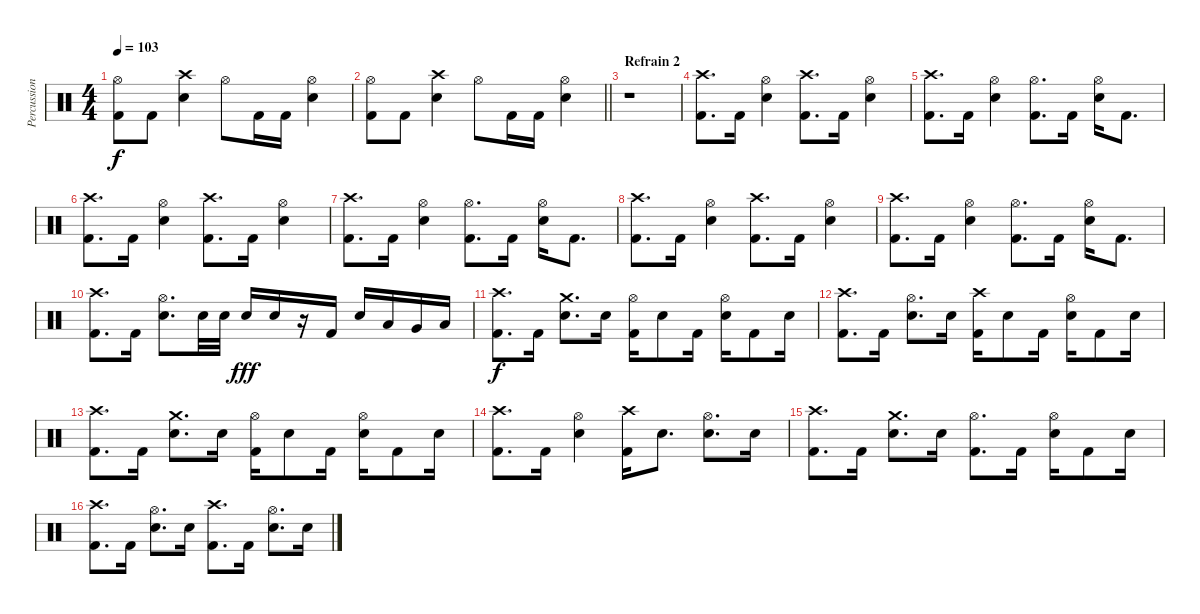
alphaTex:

\track ("Percussions" "Percussion") {instrument percussion}
\staff {score}
\articulation defaults
\ts (4 4)
\tempo 103
\clef neutral
\ks c
("Hi-Hat (open)" "Kick (hit) 2").8{dy f} "Kick (hit) 2".8 ("Crash high (hit)" "Electric Snare (hit)").4 "Hi-Hat (open)".8 "Kick (hit) 2".16 "Kick (hit) 2".16 ("Hi-Hat (open)" "Electric Snare (hit)").4 |
\barLineRight lightlight
("Hi-Hat (open)" "Kick (hit) 2").8 "Kick (hit) 2".8 ("Crash high (hit)" "Electric Snare (hit)").4 "Hi-Hat (open)".8 "Kick (hit) 2".16 "Kick (hit) 2".16 ("Hi-Hat (open)" "Electric Snare (hit)").4 |
\section ("" "Refrain 2")
r.1 |
("Crash high (hit)" "Kick (hit) 2").8{d} "Kick (hit) 2".16 ("Hi-Hat (open)" "Electric Snare (hit)").4 ("Crash high (hit)" "Kick (hit) 2").8{d} "Kick (hit) 2".16 ("Hi-Hat (open)" "Electric Snare (hit)").4 |
("Crash high (hit)" "Kick (hit) 2").8{d} "Kick (hit) 2".16 ("Hi-Hat (open)" "Electric Snare (hit)").4 ("Hi-Hat (open)" "Kick (hit) 2").8{d} "Kick (hit) 2".16 ("Hi-Hat (open)" "Electric Snare (hit)").16 "Kick (hit) 2".8{d} |
("Crash high (hit)" "Kick (hit) 2").8{d} "Kick (hit) 2".16 ("Hi-Hat (open)" "Electric Snare (hit)").4 ("Crash high (hit)" "Kick (hit) 2").8{d} "Kick (hit) 2".16 ("Hi-Hat (open)" "Electric Snare (hit)").4 |
("Crash high (hit)" "Kick (hit) 2").8{d} "Kick (hit) 2".16 ("Hi-Hat (open)" "Electric Snare (hit)").4 ("Hi-Hat (open)" "Kick (hit) 2").8{d} "Kick (hit) 2".16 ("Hi-Hat (open)" "Electric Snare (hit)").16 "Kick (hit) 2".8{d} |
("Crash high (hit)" "Kick (hit) 2").8{d} "Kick (hit) 2".16 ("Hi-Hat (open)" "Electric Snare (hit)").4 ("Crash high (hit)" "Kick (hit) 2").8{d} "Kick (hit) 2".16 ("Hi-Hat (open)" "Electric Snare (hit)").4 |
("Crash high (hit)" "Kick (hit) 2").8{d} "Kick (hit) 2".16 ("Hi-Hat (open)" "Electric Snare (hit)").4 ("Hi-Hat (open)" "Kick (hit) 2").8{d} "Kick (hit) 2".16 ("Hi-Hat (open)" "Electric Snare (hit)").16 "Kick (hit) 2".8{d} |
("Crash high (hit)" "Kick (hit) 2").8{d} "Kick (hit) 2".16 ("Hi-Hat (open)" "Electric Snare (hit)").8{d} "Electric Snare (hit)".32 "Electric Snare (hit)".32 "Electric Snare (hit)".16{dy fff} "Electric Snare (hit)".16 r.16 "Kick (hit) 2".16 "Electric Snare (hit)".16 "Low Tom (hit)".16 "Very Low Tom (hit)".16 "Low Floor Tom (hit)".16 |
("Crash high (hit)" "Kick (hit) 2").8{d dy f} "Kick (hit) 2".16 ("Crash medium (hit)" "Electric Snare (hit)").8{d} "Electric Snare (hit)".16 ("Hi-Hat (open)" "Kick (hit) 2").16 "Electric Snare (hit)".8 "Kick (hit) 2".16 ("Hi-Hat (open)" "Electric Snare (hit)").16 "Kick (hit) 2".8 "Electric Snare (hit)".16 |
("Crash high (hit)" "Kick (hit) 2").8{d} "Kick (hit) 2".16 ("Hi-Hat (open)" "Electric Snare (hit)").8{d} "Electric Snare (hit)".16 ("Crash high (hit)" "Kick (hit) 2").16 "Electric Snare (hit)".8 "Kick (hit) 2".16 ("Hi-Hat (open)" "Electric Snare (hit)").16 "Kick (hit) 2".8 "Electric Snare (hit)".16 |
("Crash high (hit)" "Kick (hit) 2").8{d} "Kick (hit) 2".16 ("Crash medium (hit)" "Electric Snare (hit)").8{d} "Electric Snare (hit)".16 ("Hi-Hat (open)" "Kick (hit) 2").16 "Electric Snare (hit)".8 "Kick (hit) 2".16 ("Hi-Hat (open)" "Electric Snare (hit)").16 "Kick (hit) 2".8 "Electric Snare (hit)".16 |
("Crash high (hit)" "Kick (hit) 2").8{d} "Kick (hit) 2".16 ("Hi-Hat (open)" "Electric Snare (hit)").4 ("Crash high (hit)" "Kick (hit) 2").16 "Electric Snare (hit)".8{d} ("Hi-Hat (open)" "Electric Snare (hit)").8{d} "Electric Snare (hit)".16 |
("Crash high (hit)" "Kick (hit) 2").8{d} "Kick (hit) 2".16 ("Crash medium (hit)" "Electric Snare (hit)").8{d} "Electric Snare (hit)".16 ("Hi-Hat (open)" "Kick (hit) 2").8{d} "Kick (hit) 2".16 ("Hi-Hat (open)" "Electric Snare (hit)").16 "Kick (hit) 2".8 "Electric Snare (hit)".16 |
("Crash high (hit)" "Kick (hit) 2").8{d} "Kick (hit) 2".16 ("Hi-Hat (open)" "Electric Snare (hit)").8{d} "Electric Snare (hit)".16 ("Crash high (hit)" "Kick (hit) 2").8{d} "Kick (hit) 2".16 ("Hi-Hat (open)" "Electric Snare (hit)").8{d} "Electric Snare (hit)".16
